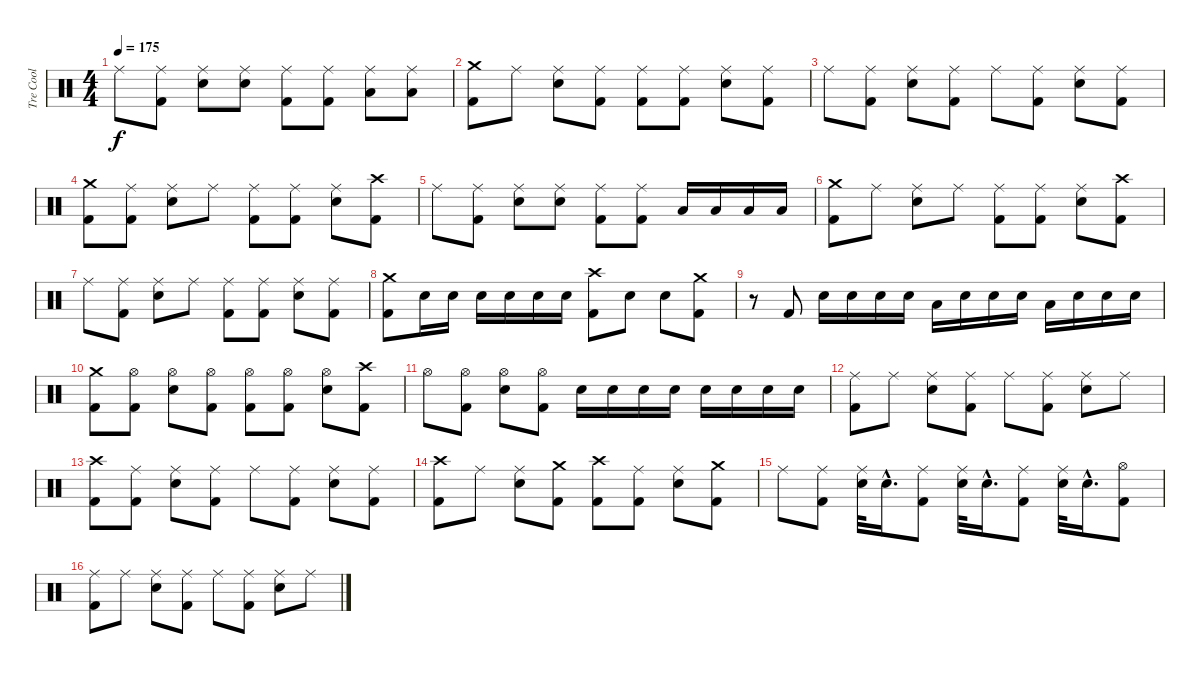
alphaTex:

\track ("Tre Cool" "Tre Cool") {instrument percussion}
\staff {score}
\articulation defaults
\ts (4 4)
\tempo 175
\clef neutral
\ks c "Ride (middle)".8{dy f}
("Kick (hit) 2" "Ride (middle)").8 ("Snare (hit) 2" "Ride (middle)").8 ("Snare (hit) 2" "Ride (middle)").8 ("Kick (hit) 2" "Ride (middle)").8 ("Kick (hit) 2" "Ride (middle)").8 ("Low Tom (hit)" "Ride (middle)").8 ("Low Tom (hit)" "Ride (middle)").8 |
("Kick (hit) 2" "Crash medium (hit)").8 "Ride (middle)".8 ("Snare (hit) 2" "Ride (middle)").8 ("Kick (hit) 2" "Ride (middle)").8 ("Kick (hit) 2" "Ride (middle)").8 ("Kick (hit) 2" "Ride (middle)").8 ("Snare (hit) 2" "Ride (middle)").8 ("Kick (hit) 2" "Ride (middle)").8 |
"Ride (middle)".8 ("Kick (hit) 2" "Ride (middle)").8 ("Snare (hit) 2" "Ride (middle)").8 ("Kick (hit) 2" "Ride (middle)").8 "Ride (middle)".8 ("Kick (hit) 2" "Ride (middle)").8 ("Snare (hit) 2" "Ride (middle)").8 ("Kick (hit) 2" "Ride (middle)").8 |
("Kick (hit) 2" "Crash medium (hit)").8 ("Kick (hit) 2" "Ride (middle)").8 ("Snare (hit) 2" "Ride (middle)").8 "Ride (middle)".8 ("Kick (hit) 2" "Ride (middle)").8 ("Kick (hit) 2" "Ride (middle)").8 ("Snare (hit) 2" "Ride (middle)").8 ("Kick (hit) 2" "Crash high (hit)").8 |
"Ride (middle)".8 ("Kick (hit) 2" "Ride (middle)").8 ("Snare (hit) 2" "Ride (middle)").8 ("Snare (hit) 2" "Ride (middle)").8 ("Kick (hit) 2" "Ride (middle)").8 ("Kick (hit) 2" "Ride (middle)").8 "Low Tom (hit)".16 "Low Tom (hit)".16 "Low Tom (hit)".16 "Low Tom (hit)".16 |
("Kick (hit) 2" "Crash medium (hit)").8 "Ride (middle)".8 ("Snare (hit) 2" "Ride (middle)").8 "Ride (middle)".8 ("Kick (hit) 2" "Ride (middle)").8 ("Kick (hit) 2" "Ride (middle)").8 ("Snare (hit) 2" "Ride (middle)").8 ("Kick (hit) 2" "Crash high (hit)").8 |
"Ride (middle)".8 ("Kick (hit) 2" "Ride (middle)").8 ("Snare (hit) 2" "Ride (middle)").8 "Ride (middle)".8 ("Kick (hit) 2" "Ride (middle)").8 ("Kick (hit) 2" "Ride (middle)").8 ("Snare (hit) 2" "Ride (middle)").8 ("Kick (hit) 2" "Ride (middle)").8 |
("Kick (hit) 2" "Crash medium (hit)").8 "Snare (hit) 2".16 "Snare (hit) 2".16 "Snare (hit) 2".16 "Snare (hit) 2".16 "Snare (hit) 2".16 "Snare (hit) 2".16 ("Kick (hit) 2" "Crash high (hit)").8 "Snare (hit) 2".8 "Snare (hit) 2".8 ("Kick (hit) 2" "Crash medium (hit)").8 |
r.8 "Kick (hit) 2".8 "Snare (hit) 2".16 "Snare (hit) 2".16 "Snare (hit) 2".16 "Snare (hit) 2".16 "Low Tom (hit)".16 "Snare (hit) 2".16 "Snare (hit) 2".16 "Snare (hit) 2".16 "Low Tom (hit)".16 "Snare (hit) 2".16 "Snare (hit) 2".16 "Snare (hit) 2".16 |
("Kick (hit) 2" "Crash medium (hit)").8 ("Kick (hit) 2" "Hi-Hat (open)").8 ("Snare (hit) 2" "Hi-Hat (open)").8 ("Kick (hit) 2" "Hi-Hat (open)").8 ("Kick (hit) 2" "Hi-Hat (open)").8 ("Kick (hit) 2" "Hi-Hat (open)").8 ("Snare (hit) 2" "Hi-Hat (open)").8 ("Kick (hit) 2" "Crash high (hit)").8 |
"Hi-Hat (open)".8 ("Kick (hit) 2" "Hi-Hat (open)").8 ("Snare (hit) 2" "Hi-Hat (open)").8 ("Kick (hit) 2" "Hi-Hat (open)").8 "Snare (hit) 2".16 "Snare (hit) 2".16 "Snare (hit) 2".16 "Snare (hit) 2".16 "Snare (hit) 2".16 "Snare (hit) 2".16 "Snare (hit) 2".16 "Snare (hit) 2".16 |
("Kick (hit) 2" "Ride (middle)").8 "Ride (middle)".8 ("Snare (hit) 2" "Ride (middle)").8 ("Kick (hit) 2" "Ride (middle)").8 "Ride (middle)".8 ("Kick (hit) 2" "Ride (middle)").8 ("Snare (hit) 2" "Ride (middle)").8 "Ride (middle)".8 |
("Kick (hit) 2" "Crash high (hit)").8 ("Kick (hit) 2" "Ride (middle)").8 ("Snare (hit) 2" "Ride (middle)").8 ("Kick (hit) 2" "Ride (middle)").8 "Ride (middle)".8 ("Kick (hit) 2" "Ride (middle)").8 ("Snare (hit) 2" "Ride (middle)").8 ("Kick (hit) 2" "Ride (middle)").8 |
("Kick (hit) 2" "Crash high (hit)").8 "Ride (middle)".8 ("Snare (hit) 2" "Ride (middle)").8 ("Kick (hit) 2" "Crash medium (hit)").8 ("Kick (hit) 2" "Crash high (hit)").8 ("Kick (hit) 2" "Ride (middle)").8 ("Snare (hit) 2" "Ride (middle)").8 ("Kick (hit) 2" "Crash medium (hit)").8 |
"Ride (middle)".8 ("Kick (hit) 2" "Ride (middle)").8 ("Snare (hit) 2" "Ride (middle)").32 "Snare (hit) 2"{hac}.16{d} ("Kick (hit) 2" "Ride (middle)").8 ("Snare (hit) 2" "Ride (middle)").32 "Snare (hit) 2"{hac}.16{d} ("Kick (hit) 2" "Ride (middle)").8 ("Snare (hit) 2" "Ride (middle)").32 "Snare (hit) 2"{hac}.16{d} ("Kick (hit) 2" "Hi-Hat (open)").8 |
("Kick (hit) 2" "Ride (middle)").8 "Ride (middle)".8 ("Snare (hit) 2" "Ride (middle)").8 ("Kick (hit) 2" "Ride (middle)").8 "Ride (middle)".8 ("Kick (hit) 2" "Ride (middle)").8 ("Snare (hit) 2" "Ride (middle)").8 "Ride (middle)".8
